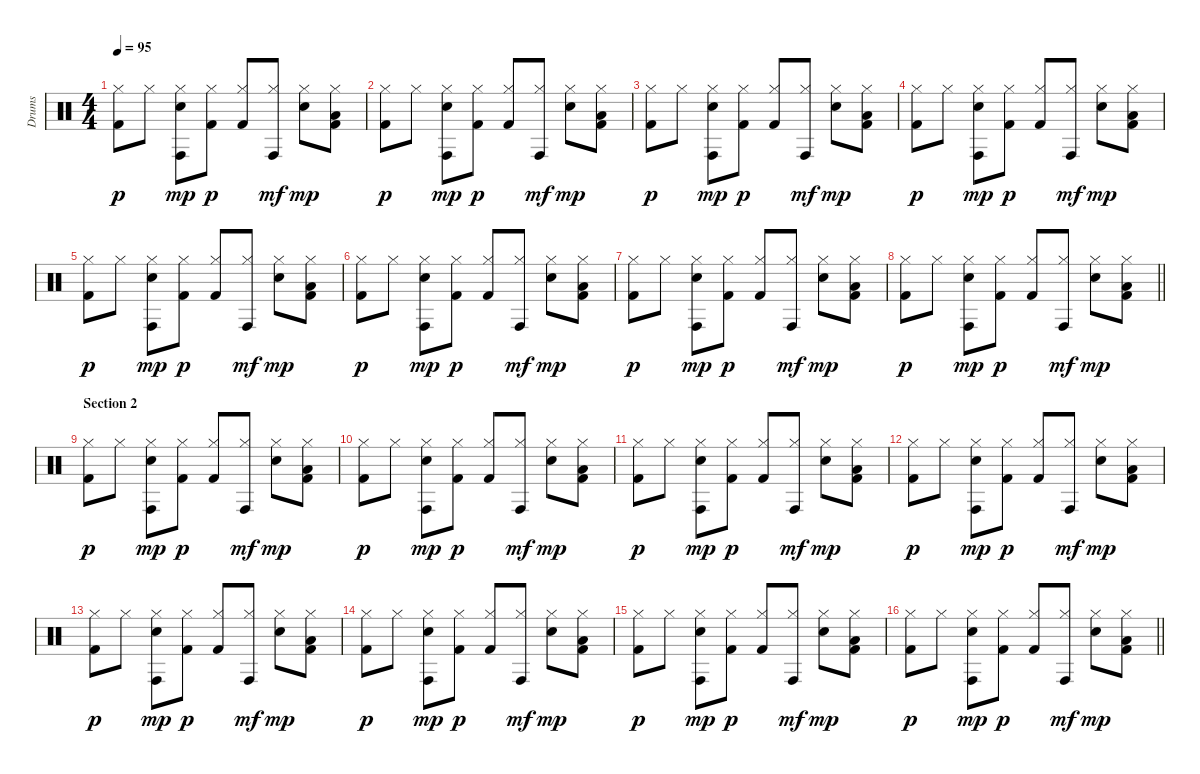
\track ("Drums" "Drums") {instrument percussion}
\staff {score}
\articulation defaults
\ts (4 4)
\tempo 95
\clef neutral
\ks c
("Hi-Hat (closed)" "Kick (hit) 2").8{dy p} "Hi-Hat (closed)".8 ("Hi-Hat (closed)" "Conga high (hit)" "Electric Snare (hit)").8{dy mp} ("Hi-Hat (closed)" "Kick (hit) 2").8{dy p} ("Hi-Hat (closed)" "Kick (hit) 2").8 ("Hi-Hat (closed)" "Conga high (hit)").8{dy mf} ("Hi-Hat (closed)" "Electric Snare (hit)").8{dy mp} ("Hi-Hat (closed)" "Low Tom (hit)" "Kick (hit) 2").8 |
("Hi-Hat (closed)" "Kick (hit) 2").8{dy p} "Hi-Hat (closed)".8 ("Hi-Hat (closed)" "Conga high (hit)" "Electric Snare (hit)").8{dy mp} ("Hi-Hat (closed)" "Kick (hit) 2").8{dy p} ("Hi-Hat (closed)" "Kick (hit) 2").8 ("Hi-Hat (closed)" "Conga high (hit)").8{dy mf} ("Hi-Hat (closed)" "Electric Snare (hit)").8{dy mp} ("Hi-Hat (closed)" "Low Tom (hit)" "Kick (hit) 2").8 |
("Hi-Hat (closed)" "Kick (hit) 2").8{dy p} "Hi-Hat (closed)".8 ("Hi-Hat (closed)" "Conga high (hit)" "Electric Snare (hit)").8{dy mp} ("Hi-Hat (closed)" "Kick (hit) 2").8{dy p} ("Hi-Hat (closed)" "Kick (hit) 2").8 ("Hi-Hat (closed)" "Conga high (hit)").8{dy mf} ("Hi-Hat (closed)" "Electric Snare (hit)").8{dy mp} ("Hi-Hat (closed)" "Low Tom (hit)" "Kick (hit) 2").8 |
("Hi-Hat (closed)" "Kick (hit) 2").8{dy p} "Hi-Hat (closed)".8 ("Hi-Hat (closed)" "Conga high (hit)" "Electric Snare (hit)").8{dy mp} ("Hi-Hat (closed)" "Kick (hit) 2").8{dy p} ("Hi-Hat (closed)" "Kick (hit) 2").8 ("Hi-Hat (closed)" "Conga high (hit)").8{dy mf} ("Hi-Hat (closed)" "Electric Snare (hit)").8{dy mp} ("Hi-Hat (closed)" "Low Tom (hit)" "Kick (hit) 2").8 |
("Hi-Hat (closed)" "Kick (hit) 2").8{dy p} "Hi-Hat (closed)".8 ("Hi-Hat (closed)" "Conga high (hit)" "Electric Snare (hit)").8{dy mp} ("Hi-Hat (closed)" "Kick (hit) 2").8{dy p} ("Hi-Hat (closed)" "Kick (hit) 2").8 ("Hi-Hat (closed)" "Conga high (hit)").8{dy mf} ("Hi-Hat (closed)" "Electric Snare (hit)").8{dy mp} ("Hi-Hat (closed)" "Low Tom (hit)" "Kick (hit) 2").8 |
("Hi-Hat (closed)" "Kick (hit) 2").8{dy p} "Hi-Hat (closed)".8 ("Hi-Hat (closed)" "Conga high (hit)" "Electric Snare (hit)").8{dy mp} ("Hi-Hat (closed)" "Kick (hit) 2").8{dy p} ("Hi-Hat (closed)" "Kick (hit) 2").8 ("Hi-Hat (closed)" "Conga high (hit)").8{dy mf} ("Hi-Hat (closed)" "Electric Snare (hit)").8{dy mp} ("Hi-Hat (closed)" "Low Tom (hit)" "Kick (hit) 2").8 |
("Hi-Hat (closed)" "Kick (hit) 2").8{dy p} "Hi-Hat (closed)".8 ("Hi-Hat (closed)" "Conga high (hit)" "Electric Snare (hit)").8{dy mp} ("Hi-Hat (closed)" "Kick (hit) 2").8{dy p} ("Hi-Hat (closed)" "Kick (hit) 2").8 ("Hi-Hat (closed)" "Conga high (hit)").8{dy mf} ("Hi-Hat (closed)" "Electric Snare (hit)").8{dy mp} ("Hi-Hat (closed)" "Low Tom (hit)" "Kick (hit) 2").8 |
\barLineRight lightlight
("Hi-Hat (closed)" "Kick (hit) 2").8{dy p} "Hi-Hat (closed)".8 ("Hi-Hat (closed)" "Conga high (hit)" "Electric Snare (hit)").8{dy mp} ("Hi-Hat (closed)" "Kick (hit) 2").8{dy p} ("Hi-Hat (closed)" "Kick (hit) 2").8 ("Hi-Hat (closed)" "Conga high (hit)").8{dy mf} ("Hi-Hat (closed)" "Electric Snare (hit)").8{dy mp} ("Hi-Hat (closed)" "Low Tom (hit)" "Kick (hit) 2").8 |
\section ("" "Section 2")
("Hi-Hat (closed)" "Kick (hit) 2").8{dy p} "Hi-Hat (closed)".8 ("Hi-Hat (closed)" "Conga high (hit)" "Electric Snare (hit)").8{dy mp} ("Hi-Hat (closed)" "Kick (hit) 2").8{dy p} ("Hi-Hat (closed)" "Kick (hit) 2").8 ("Hi-Hat (closed)" "Conga high (hit)").8{dy mf} ("Hi-Hat (closed)" "Electric Snare (hit)").8{dy mp} ("Hi-Hat (closed)" "Low Tom (hit)" "Kick (hit) 2").8 |
("Hi-Hat (closed)" "Kick (hit) 2").8{dy p} "Hi-Hat (closed)".8 ("Hi-Hat (closed)" "Conga high (hit)" "Electric Snare (hit)").8{dy mp} ("Hi-Hat (closed)" "Kick (hit) 2").8{dy p} ("Hi-Hat (closed)" "Kick (hit) 2").8 ("Hi-Hat (closed)" "Conga high (hit)").8{dy mf} ("Hi-Hat (closed)" "Electric Snare (hit)").8{dy mp} ("Hi-Hat (closed)" "Low Tom (hit)" "Kick (hit) 2").8 |
("Hi-Hat (closed)" "Kick (hit) 2").8{dy p} "Hi-Hat (closed)".8 ("Hi-Hat (closed)" "Conga high (hit)" "Electric Snare (hit)").8{dy mp} ("Hi-Hat (closed)" "Kick (hit) 2").8{dy p} ("Hi-Hat (closed)" "Kick (hit) 2").8 ("Hi-Hat (closed)" "Conga high (hit)").8{dy mf} ("Hi-Hat (closed)" "Electric Snare (hit)").8{dy mp} ("Hi-Hat (closed)" "Low Tom (hit)" "Kick (hit) 2").8 |
("Hi-Hat (closed)" "Kick (hit) 2").8{dy p} "Hi-Hat (closed)".8 ("Hi-Hat (closed)" "Conga high (hit)" "Electric Snare (hit)").8{dy mp} ("Hi-Hat (closed)" "Kick (hit) 2").8{dy p} ("Hi-Hat (closed)" "Kick (hit) 2").8 ("Hi-Hat (closed)" "Conga high (hit)").8{dy mf} ("Hi-Hat (closed)" "Electric Snare (hit)").8{dy mp} ("Hi-Hat (closed)" "Low Tom (hit)" "Kick (hit) 2").8 |
("Hi-Hat (closed)" "Kick (hit) 2").8{dy p} "Hi-Hat (closed)".8 ("Hi-Hat (closed)" "Conga high (hit)" "Electric Snare (hit)").8{dy mp} ("Hi-Hat (closed)" "Kick (hit) 2").8{dy p} ("Hi-Hat (closed)" "Kick (hit) 2").8 ("Hi-Hat (closed)" "Conga high (hit)").8{dy mf} ("Hi-Hat (closed)" "Electric Snare (hit)").8{dy mp} ("Hi-Hat (closed)" "Low Tom (hit)" "Kick (hit) 2").8 |
("Hi-Hat (closed)" "Kick (hit) 2").8{dy p} "Hi-Hat (closed)".8 ("Hi-Hat (closed)" "Conga high (hit)" "Electric Snare (hit)").8{dy mp} ("Hi-Hat (closed)" "Kick (hit) 2").8{dy p} ("Hi-Hat (closed)" "Kick (hit) 2").8 ("Hi-Hat (closed)" "Conga high (hit)").8{dy mf} ("Hi-Hat (closed)" "Electric Snare (hit)").8{dy mp} ("Hi-Hat (closed)" "Low Tom (hit)" "Kick (hit) 2").8 |
("Hi-Hat (closed)" "Kick (hit) 2").8{dy p} "Hi-Hat (closed)".8 ("Hi-Hat (closed)" "Conga high (hit)" "Electric Snare (hit)").8{dy mp} ("Hi-Hat (closed)" "Kick (hit) 2").8{dy p} ("Hi-Hat (closed)" "Kick (hit) 2").8 ("Hi-Hat (closed)" "Conga high (hit)").8{dy mf} ("Hi-Hat (closed)" "Electric Snare (hit)").8{dy mp} ("Hi-Hat (closed)" "Low Tom (hit)" "Kick (hit) 2").8 |
\barLineRight lightlight
("Hi-Hat (closed)" "Kick (hit) 2").8{dy p} "Hi-Hat (closed)".8 ("Hi-Hat (closed)" "Conga high (hit)" "Electric Snare (hit)").8{dy mp} ("Hi-Hat (closed)" "Kick (hit) 2").8{dy p} ("Hi-Hat (closed)" "Kick (hit) 2").8 ("Hi-Hat (closed)" "Conga high (hit)").8{dy mf} ("Hi-Hat (closed)" "Electric Snare (hit)").8{dy mp} ("Hi-Hat (closed)" "Low Tom (hit)" "Kick (hit) 2").8
